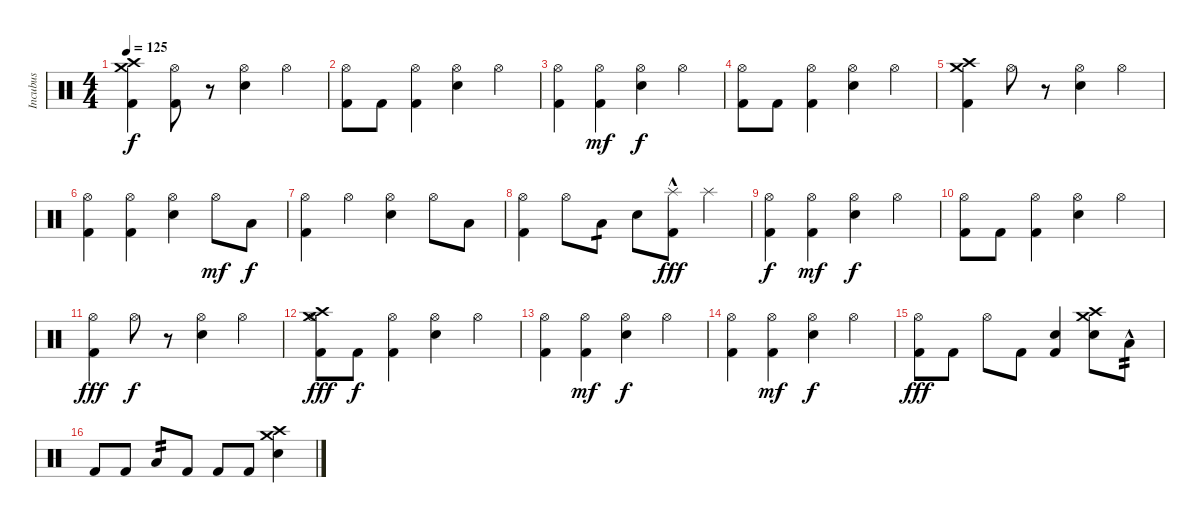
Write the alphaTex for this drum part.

\track ("Incubus" "Incubus") {instrument percussion}
\staff {score}
\articulation defaults
\ts (4 4)
\tempo 125
\clef neutral
\ks c
("Crash high (hit)" "Crash medium (hit)" "Kick (hit) 2").4{dy f} ("Hi-Hat (open)" "Kick (hit) 2").8 r.8 ("Hi-Hat (open)" "Snare (hit) 2").4 "Hi-Hat (open)".4 |
("Hi-Hat (open)" "Kick (hit) 2").8 "Kick (hit) 2".8 ("Hi-Hat (open)" "Kick (hit) 2").4 ("Hi-Hat (open)" "Snare (hit) 2").4 "Hi-Hat (open)".4 |
("Hi-Hat (open)" "Kick (hit) 2").4 ("Hi-Hat (open)" "Kick (hit) 2").4{dy mf} ("Hi-Hat (open)" "Snare (hit) 2").4{dy f} "Hi-Hat (open)".4 |
("Hi-Hat (open)" "Kick (hit) 2").8 "Kick (hit) 2".8 ("Hi-Hat (open)" "Kick (hit) 2").4 ("Hi-Hat (open)" "Snare (hit) 2").4 "Hi-Hat (open)".4 |
("Crash high (hit)" "Crash medium (hit)" "Kick (hit) 2").4 "Hi-Hat (open)".8 r.8 ("Hi-Hat (open)" "Snare (hit) 2").4 "Hi-Hat (open)".4 |
("Hi-Hat (open)" "Kick (hit) 2").4 ("Hi-Hat (open)" "Kick (hit) 2").4 ("Hi-Hat (open)" "Snare (hit) 2").4 "Hi-Hat (open)".8{dy mf} "Low Floor Tom (hit)".8{dy f} |
("Hi-Hat (open)" "Kick (hit) 2").4 "Hi-Hat (open)".4 ("Hi-Hat (open)" "Snare (hit) 2").4 "Hi-Hat (open)".8 "Low Floor Tom (hit)".8 |
("Hi-Hat (open)" "Kick (hit) 2").4 "Hi-Hat (open)".8 "Low Floor Tom (hit)".8{tp 1} "Snare (hit) 2".8 ("Splash (hit)"{hac} "Kick (hit) 2").8{dy fff} "Splash (hit)".4 |
("Hi-Hat (open)" "Kick (hit) 2").4{dy f} ("Hi-Hat (open)" "Kick (hit) 2").4{dy mf} ("Hi-Hat (open)" "Snare (hit) 2").4{dy f} "Hi-Hat (open)".4 |
("Hi-Hat (open)" "Kick (hit) 2").8 "Kick (hit) 2".8 ("Hi-Hat (open)" "Kick (hit) 2").4 ("Hi-Hat (open)" "Snare (hit) 2").4 "Hi-Hat (open)".4 |
("Hi-Hat (open)" "Kick (hit) 2").4{dy fff} "Hi-Hat (open)".8{dy f} r.8 ("Hi-Hat (open)" "Snare (hit) 2").4 "Hi-Hat (open)".4 |
("Crash high (hit)" "Crash medium (hit)" "Hi-Hat (open)" "Kick (hit) 2").8{dy fff} "Kick (hit) 2".8{dy f} ("Hi-Hat (open)" "Kick (hit) 2").4 ("Hi-Hat (open)" "Snare (hit) 2").4 "Hi-Hat (open)".4 |
("Hi-Hat (open)" "Kick (hit) 2").4 ("Hi-Hat (open)" "Kick (hit) 2").4{dy mf} ("Hi-Hat (open)" "Snare (hit) 2").4{dy f} "Hi-Hat (open)".4 |
("Hi-Hat (open)" "Kick (hit) 2").4 ("Hi-Hat (open)" "Kick (hit) 2").4{dy mf} ("Hi-Hat (open)" "Snare (hit) 2").4{dy f} "Hi-Hat (open)".4 |
("Hi-Hat (open)" "Kick (hit) 2").8{dy fff} "Kick (hit) 2".8 "Hi-Hat (open)".8 "Kick (hit) 2".8 ("Snare (hit) 2" "Kick (hit) 2").4 ("Crash high (hit)" "Crash medium (hit)" "Snare (hit) 2").8 "Low Floor Tom (hit)"{hac}.8{tp 2} |
"Kick (hit) 2".8 "Kick (hit) 2".8 "Low Floor Tom (hit)".8{tp 2} "Kick (hit) 2".8 "Kick (hit) 2".8 "Kick (hit) 2".8 ("Crash high (hit)" "Crash medium (hit)" "Snare (hit) 2").4
